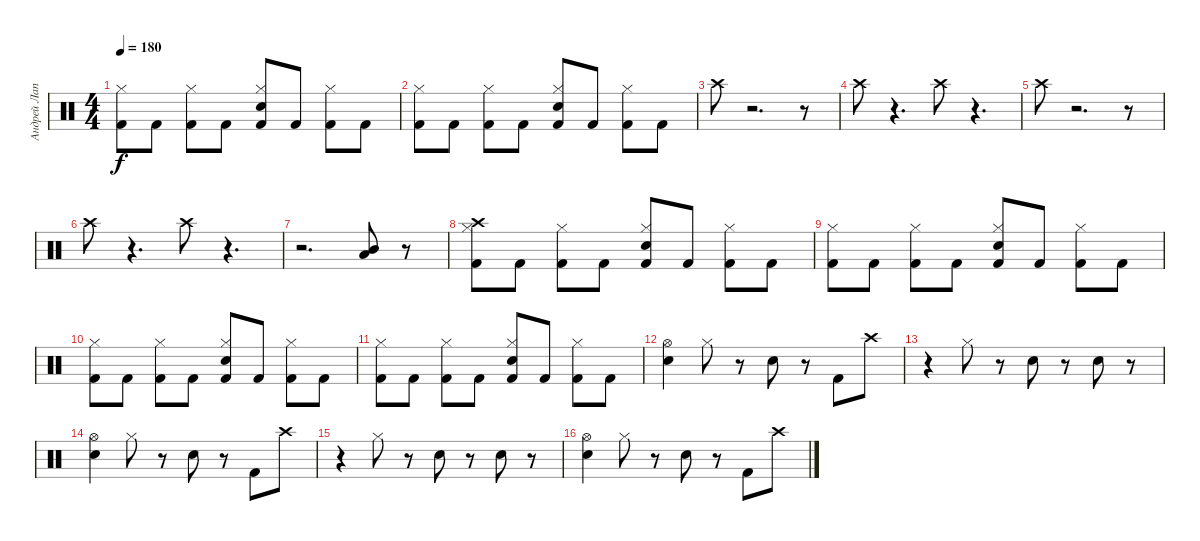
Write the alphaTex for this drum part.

\track ("Андрей Лаптев" "Андрей Лап") {instrument percussion}
\staff {score}
\articulation defaults
\ts (4 4)
\tempo 180
\clef neutral
\ks c
("Kick (hit) 2" "Hi-Hat (closed)").8{dy f} "Kick (hit) 2".8 ("Kick (hit) 2" "Hi-Hat (closed)").8 "Kick (hit) 2".8 ("Snare (hit) 2" "Kick (hit) 2" "Hi-Hat (closed)").8 "Kick (hit) 2".8 ("Kick (hit) 2" "Hi-Hat (closed)").8 "Kick (hit) 2".8 |
("Kick (hit) 2" "Hi-Hat (closed)").8 "Kick (hit) 2".8 ("Kick (hit) 2" "Hi-Hat (closed)").8 "Kick (hit) 2".8 ("Snare (hit) 2" "Kick (hit) 2" "Hi-Hat (closed)").8 "Kick (hit) 2".8 ("Kick (hit) 2" "Hi-Hat (closed)").8 "Kick (hit) 2".8 |
"Crash high (hit)".8 r.2{d} r.8 |
"Crash high (hit)".8 r.4{d} "Crash high (hit)".8 r.4{d} |
"Crash high (hit)".8 r.2{d} r.8 |
"Crash high (hit)".8 r.4{d} "Crash high (hit)".8 r.4{d} |
r.2{d} ("Mid Tom (hit)" "Low Tom (hit)").8 r.8 |
("Kick (hit) 2" "Hi-Hat (closed)" "Crash high (hit)").8 "Kick (hit) 2".8 ("Kick (hit) 2" "Hi-Hat (closed)").8 "Kick (hit) 2".8 ("Snare (hit) 2" "Kick (hit) 2" "Hi-Hat (closed)").8 "Kick (hit) 2".8 ("Kick (hit) 2" "Hi-Hat (closed)").8 "Kick (hit) 2".8 |
("Kick (hit) 2" "Hi-Hat (closed)").8 "Kick (hit) 2".8 ("Kick (hit) 2" "Hi-Hat (closed)").8 "Kick (hit) 2".8 ("Snare (hit) 2" "Kick (hit) 2" "Hi-Hat (closed)").8 "Kick (hit) 2".8 ("Kick (hit) 2" "Hi-Hat (closed)").8 "Kick (hit) 2".8 |
("Kick (hit) 2" "Hi-Hat (closed)").8 "Kick (hit) 2".8 ("Kick (hit) 2" "Hi-Hat (closed)").8 "Kick (hit) 2".8 ("Snare (hit) 2" "Kick (hit) 2" "Hi-Hat (closed)").8 "Kick (hit) 2".8 ("Kick (hit) 2" "Hi-Hat (closed)").8 "Kick (hit) 2".8 |
("Kick (hit) 2" "Hi-Hat (closed)").8 "Kick (hit) 2".8 ("Kick (hit) 2" "Hi-Hat (closed)").8 "Kick (hit) 2".8 ("Snare (hit) 2" "Kick (hit) 2" "Hi-Hat (closed)").8 "Kick (hit) 2".8 ("Kick (hit) 2" "Hi-Hat (closed)").8 "Kick (hit) 2".8 |
("Snare (hit) 2" "Hi-Hat (open)").4 "Hi-Hat (closed)".8 r.8 "Snare (hit) 2".8 r.8 "Kick (hit) 2".8 "Crash high (hit)".8 |
r.4 "Hi-Hat (closed)".8 r.8 "Snare (hit) 2".8 r.8 "Snare (hit) 2".8 r.8 |
("Snare (hit) 2" "Hi-Hat (open)").4 "Hi-Hat (closed)".8 r.8 "Snare (hit) 2".8 r.8 "Kick (hit) 2".8 "Crash high (hit)".8 |
r.4 "Hi-Hat (closed)".8 r.8 "Snare (hit) 2".8 r.8 "Snare (hit) 2".8 r.8 |
("Snare (hit) 2" "Hi-Hat (open)").4 "Hi-Hat (closed)".8 r.8 "Snare (hit) 2".8 r.8 "Kick (hit) 2".8 "Crash high (hit)".8
